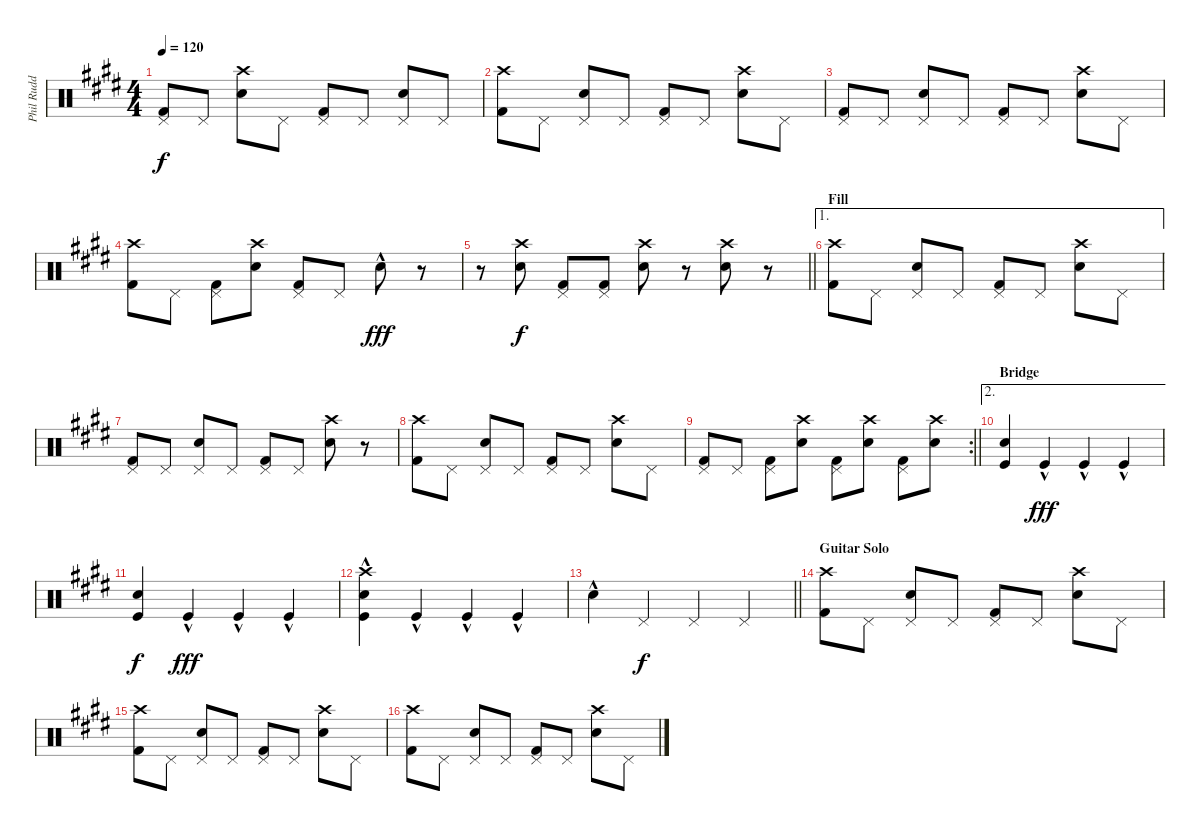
\track ("Phil Rudd (Drums)" "Phil Rudd ") {instrument percussion}
\staff {score}
\articulation defaults
\ts (4 4)
\tempo 120
\clef neutral
\ks e
("Pedal Hi-Hat (hit)" "Kick (hit) 2").8{dy f} "Pedal Hi-Hat (hit)".8 ("Crash high (hit)" "Snare (hit) 2").8 "Pedal Hi-Hat (hit)".8 ("Pedal Hi-Hat (hit)" "Kick (hit) 2").8 "Pedal Hi-Hat (hit)".8 ("Pedal Hi-Hat (hit)" "Snare (hit) 2").8 "Pedal Hi-Hat (hit)".8 |
("Crash high (hit)" "Kick (hit) 2").8 "Pedal Hi-Hat (hit)".8 ("Pedal Hi-Hat (hit)" "Snare (hit) 2").8 "Pedal Hi-Hat (hit)".8 ("Pedal Hi-Hat (hit)" "Kick (hit) 2").8 "Pedal Hi-Hat (hit)".8 ("Crash high (hit)" "Snare (hit) 2").8 "Pedal Hi-Hat (hit)".8 |
("Pedal Hi-Hat (hit)" "Kick (hit) 2").8 "Pedal Hi-Hat (hit)".8 ("Pedal Hi-Hat (hit)" "Snare (hit) 2").8 "Pedal Hi-Hat (hit)".8 ("Pedal Hi-Hat (hit)" "Kick (hit) 2").8 "Pedal Hi-Hat (hit)".8 ("Crash high (hit)" "Snare (hit) 2").8 "Pedal Hi-Hat (hit)".8 |
("Crash high (hit)" "Kick (hit) 2").8 "Pedal Hi-Hat (hit)".8 ("Pedal Hi-Hat (hit)" "Kick (hit) 2").8 ("Crash high (hit)" "Snare (hit) 2").8 ("Pedal Hi-Hat (hit)" "Kick (hit) 2").8 "Pedal Hi-Hat (hit)".8 "Electric Snare (hit)"{hac}.8{dy fff} r.8 |
\barLineRight lightlight
r.8 ("Crash high (hit)" "Snare (hit) 2").8{dy f} ("Pedal Hi-Hat (hit)" "Kick (hit) 2").8 ("Pedal Hi-Hat (hit)" "Kick (hit) 2").8 ("Crash high (hit)" "Snare (hit) 2").8 r.8 ("Crash high (hit)" "Snare (hit) 2").8 r.8 |
\ae 1
\section ("" "Fill")
("Crash high (hit)" "Kick (hit) 2").8 "Pedal Hi-Hat (hit)".8 ("Pedal Hi-Hat (hit)" "Snare (hit) 2").8 "Pedal Hi-Hat (hit)".8 ("Pedal Hi-Hat (hit)" "Kick (hit) 2").8 "Pedal Hi-Hat (hit)".8 ("Crash high (hit)" "Snare (hit) 2").8 "Pedal Hi-Hat (hit)".8 |
("Pedal Hi-Hat (hit)" "Kick (hit) 2").8 "Pedal Hi-Hat (hit)".8 ("Pedal Hi-Hat (hit)" "Snare (hit) 2").8 "Pedal Hi-Hat (hit)".8 ("Pedal Hi-Hat (hit)" "Kick (hit) 2").8 "Pedal Hi-Hat (hit)".8 ("Crash high (hit)" "Snare (hit) 2").8 r.8 |
("Crash high (hit)" "Kick (hit) 2").8 "Pedal Hi-Hat (hit)".8 ("Pedal Hi-Hat (hit)" "Snare (hit) 2").8 "Pedal Hi-Hat (hit)".8 ("Pedal Hi-Hat (hit)" "Kick (hit) 2").8 "Pedal Hi-Hat (hit)".8 ("Crash high (hit)" "Snare (hit) 2").8 "Pedal Hi-Hat (hit)".8 |
\rc 2
\barLineRight lightlight
("Pedal Hi-Hat (hit)" "Kick (hit) 2").8 "Pedal Hi-Hat (hit)".8 ("Pedal Hi-Hat (hit)" "Kick (hit) 2").8 ("Crash high (hit)" "Snare (hit) 2").8 ("Pedal Hi-Hat (hit)" "Kick (hit) 2").8 ("Crash high (hit)" "Snare (hit) 2").8 ("Pedal Hi-Hat (hit)" "Kick (hit) 2").8 ("Crash high (hit)" "Snare (hit) 2").8 |
\ae 2
\section ("" "Bridge")
("Electric Snare (hit)" "Kick (hit)").4 "Kick (hit)"{hac}.4{dy fff} "Kick (hit)"{hac}.4 "Kick (hit)"{hac}.4 |
("Electric Snare (hit)" "Kick (hit)").4{dy f} "Kick (hit)"{hac}.4{dy fff} "Kick (hit)"{hac}.4 "Kick (hit)"{hac}.4 |
("Crash high (hit)"{hac} "Snare (hit) 2" "Kick (hit)").4 "Kick (hit)"{hac}.4 "Kick (hit)"{hac}.4 "Kick (hit)"{hac}.4 |
\barLineRight lightlight "Electric Snare (hit)"{hac}.4 "Pedal Hi-Hat (hit)".4{dy f} "Pedal Hi-Hat (hit)".4 "Pedal Hi-Hat (hit)".4
|
\section ("" "Guitar Solo")
("Crash high (hit)" "Kick (hit) 2").8 "Pedal Hi-Hat (hit)".8 ("Pedal Hi-Hat (hit)" "Snare (hit) 2").8 "Pedal Hi-Hat (hit)".8 ("Pedal Hi-Hat (hit)" "Kick (hit) 2").8 "Pedal Hi-Hat (hit)".8 ("Crash high (hit)" "Snare (hit) 2").8 "Pedal Hi-Hat (hit)".8 |
("Crash high (hit)" "Kick (hit) 2").8 "Pedal Hi-Hat (hit)".8 ("Pedal Hi-Hat (hit)" "Snare (hit) 2").8 "Pedal Hi-Hat (hit)".8 ("Pedal Hi-Hat (hit)" "Kick (hit) 2").8 "Pedal Hi-Hat (hit)".8 ("Crash high (hit)" "Snare (hit) 2").8 "Pedal Hi-Hat (hit)".8 |
("Crash high (hit)" "Kick (hit) 2").8 "Pedal Hi-Hat (hit)".8 ("Pedal Hi-Hat (hit)" "Snare (hit) 2").8 "Pedal Hi-Hat (hit)".8 ("Pedal Hi-Hat (hit)" "Kick (hit) 2").8 "Pedal Hi-Hat (hit)".8 ("Crash high (hit)" "Snare (hit) 2").8 "Pedal Hi-Hat (hit)".8
